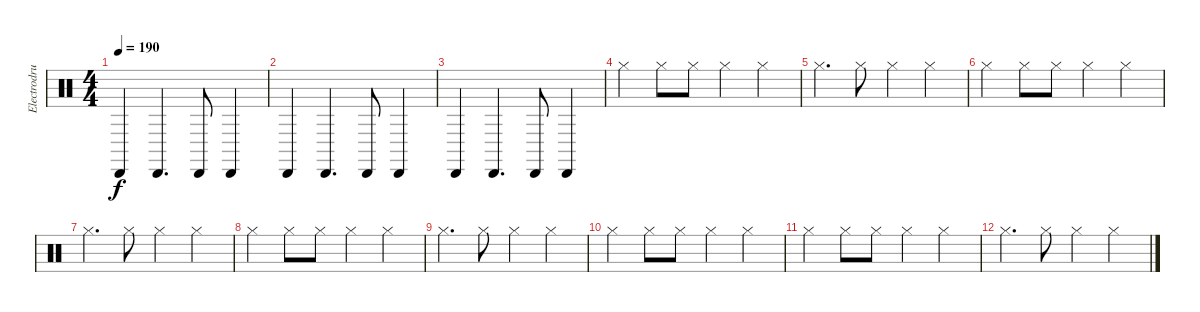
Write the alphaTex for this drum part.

\track ("Electrodrums1" "Electrodru") {instrument percussion}
\staff {score}
\articulation defaults
\ts (4 4)
\tempo 190
\clef neutral
\ks c "Cabasa (hit)".4{dy f} "Cabasa (hit)".4{d} "Cabasa (hit)".8 "Cabasa (hit)".4
|
"Cabasa (hit)".4 "Cabasa (hit)".4{d} "Cabasa (hit)".8 "Cabasa (hit)".4 |
"Cabasa (hit)".4 "Cabasa (hit)".4{d} "Cabasa (hit)".8 "Cabasa (hit)".4 |
"Hi-Hat (closed)".4 "Hi-Hat (closed)".8 "Hi-Hat (closed)".8 "Hi-Hat (closed)".4 "Hi-Hat (closed)".4 |
"Hi-Hat (closed)".4{d} "Hi-Hat (closed)".8 "Hi-Hat (closed)".4 "Hi-Hat (closed)".4 |
"Hi-Hat (closed)".4 "Hi-Hat (closed)".8 "Hi-Hat (closed)".8 "Hi-Hat (closed)".4 "Hi-Hat (closed)".4 |
"Hi-Hat (closed)".4{d} "Hi-Hat (closed)".8 "Hi-Hat (closed)".4 "Hi-Hat (closed)".4 |
"Hi-Hat (closed)".4 "Hi-Hat (closed)".8 "Hi-Hat (closed)".8 "Hi-Hat (closed)".4 "Hi-Hat (closed)".4 |
"Hi-Hat (closed)".4{d} "Hi-Hat (closed)".8 "Hi-Hat (closed)".4 "Hi-Hat (closed)".4 |
"Hi-Hat (closed)".4 "Hi-Hat (closed)".8 "Hi-Hat (closed)".8 "Hi-Hat (closed)".4 "Hi-Hat (closed)".4 |
"Hi-Hat (closed)".4 "Hi-Hat (closed)".8 "Hi-Hat (closed)".8 "Hi-Hat (closed)".4 "Hi-Hat (closed)".4 |
"Hi-Hat (closed)".4{d} "Hi-Hat (closed)".8 "Hi-Hat (closed)".4 "Hi-Hat (closed)".4
